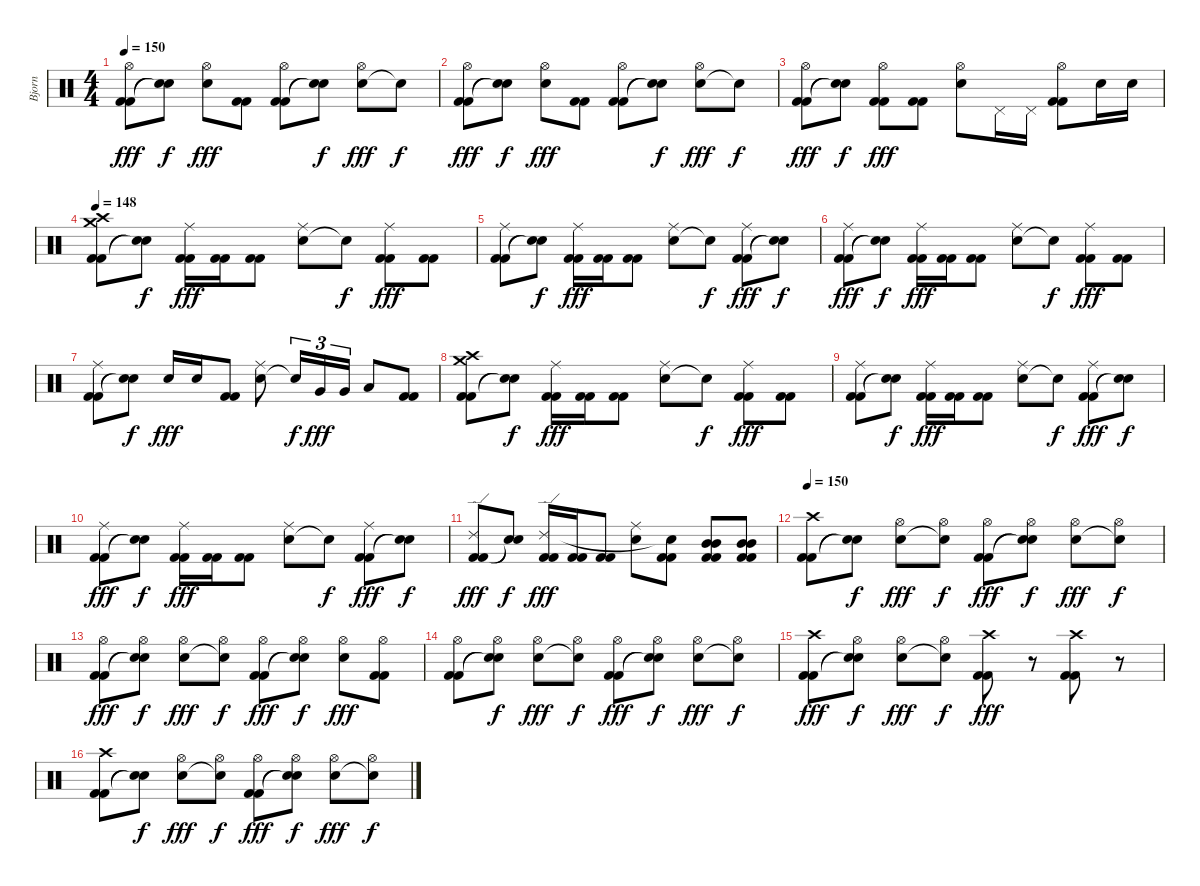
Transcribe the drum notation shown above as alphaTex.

\track ("Bjorn" "Bjorn") {instrument percussion}
\staff {score}
\articulation defaults
\ts (4 4)
\tempo 150
\clef neutral
\ks c
("Kick (hit) 2" "Kick (hit) 2" "Hi-Hat (open)").8{dy fff} ("Snare (hit)"{t} "Snare (hit)"{t}).8{dy f} ("Snare (hit) 2" "Hi-Hat (open)").8{dy fff} ("Kick (hit) 2" "Kick (hit) 2").8 ("Kick (hit) 2" "Kick (hit) 2" "Hi-Hat (open)").8 ("Snare (hit)"{t} "Snare (hit)"{t}).8{dy f} ("Snare (hit) 2" "Hi-Hat (open)").8{dy fff} "Snare (hit)"{t}.8{dy f} |
("Kick (hit) 2" "Kick (hit) 2" "Hi-Hat (open)").8{dy fff} ("Snare (hit)"{t} "Snare (hit)"{t}).8{dy f} ("Snare (hit) 2" "Hi-Hat (open)").8{dy fff} ("Kick (hit) 2" "Kick (hit) 2").8 ("Kick (hit) 2" "Kick (hit) 2" "Hi-Hat (open)").8 ("Snare (hit)"{t} "Snare (hit)"{t}).8{dy f} ("Snare (hit) 2" "Hi-Hat (open)").8{dy fff} "Snare (hit)"{t}.8{dy f} |
("Kick (hit) 2" "Kick (hit) 2" "Hi-Hat (open)").8{dy fff} ("Snare (hit)"{t} "Snare (hit)"{t}).8{dy f} ("Kick (hit) 2" "Kick (hit) 2" "Hi-Hat (open)").8{dy fff} ("Kick (hit) 2" "Kick (hit) 2").8 ("Snare (hit) 2" "Hi-Hat (open)").8 "Pedal Hi-Hat (hit)".16 "Pedal Hi-Hat (hit)".16 ("Kick (hit) 2" "Kick (hit) 2" "Hi-Hat (open)").8 "Snare (hit) 2".16 "Snare (hit) 2".16 |
\tempo 148
("Kick (hit) 2" "Kick (hit) 2" "Crash high (hit)" "Crash medium (hit)").8 ("Snare (hit)"{t} "Snare (hit)"{t}).8{dy f} ("Kick (hit) 2" "Kick (hit) 2" "Ride (middle)").16{dy fff} ("Kick (hit) 2" "Kick (hit) 2").16 ("Kick (hit) 2" "Kick (hit) 2").8 ("Snare (hit) 2" "Ride (middle)").8 "Snare (hit)"{t}.8{dy f} ("Kick (hit) 2" "Kick (hit) 2" "Ride (middle)").8{dy fff} ("Kick (hit) 2" "Kick (hit) 2").8 |
("Kick (hit) 2" "Kick (hit) 2" "Ride (middle)").8 ("Snare (hit)"{t} "Snare (hit)"{t}).8{dy f} ("Kick (hit) 2" "Kick (hit) 2" "Ride (middle)").16{dy fff} ("Kick (hit) 2" "Kick (hit) 2").16 ("Kick (hit) 2" "Kick (hit) 2").8 ("Snare (hit) 2" "Ride (middle)").8 "Snare (hit)"{t}.8{dy f} ("Kick (hit) 2" "Kick (hit) 2" "Ride (middle)").8{dy fff} ("Snare (hit)"{t} "Snare (hit)"{t}).8{dy f} |
("Kick (hit) 2" "Kick (hit) 2" "Ride (middle)").8{dy fff} ("Snare (hit)"{t} "Snare (hit)"{t}).8{dy f} ("Kick (hit) 2" "Kick (hit) 2" "Ride (middle)").16{dy fff} ("Kick (hit) 2" "Kick (hit) 2").16 ("Kick (hit) 2" "Kick (hit) 2").8 ("Snare (hit) 2" "Ride (middle)").8 "Snare (hit)"{t}.8{dy f} ("Kick (hit) 2" "Kick (hit) 2" "Ride (middle)").8{dy fff} ("Kick (hit) 2" "Kick (hit) 2").8 |
("Kick (hit) 2" "Kick (hit) 2" "Ride (middle)").8 ("Snare (hit)"{t} "Snare (hit)"{t}).8{dy f} "Snare (hit) 2".16{dy fff} "Snare (hit) 2".16 ("Kick (hit) 2" "Kick (hit) 2").8 ("Snare (hit) 2" "Ride (middle)").8 "Snare (hit)"{t}.16{tu (3 2) dy f} "Very Low Tom (hit)".16{tu (3 2) dy fff} "Very Low Tom (hit)".16{tu (3 2)} "Low Floor Tom (hit)".8 ("Kick (hit) 2" "Kick (hit) 2").8 |
("Kick (hit) 2" "Kick (hit) 2" "Crash high (hit)" "Crash medium (hit)").8 ("Snare (hit)"{t} "Snare (hit)"{t}).8{dy f} ("Kick (hit) 2" "Kick (hit) 2" "Ride (middle)").16{dy fff} ("Kick (hit) 2" "Kick (hit) 2").16 ("Kick (hit) 2" "Kick (hit) 2").8 ("Snare (hit) 2" "Ride (middle)").8 "Snare (hit)"{t}.8{dy f} ("Kick (hit) 2" "Kick (hit) 2" "Ride (middle)").8{dy fff} ("Kick (hit) 2" "Kick (hit) 2").8 |
("Kick (hit) 2" "Kick (hit) 2" "Ride (middle)").8 ("Snare (hit)"{t} "Snare (hit)"{t}).8{dy f} ("Kick (hit) 2" "Kick (hit) 2" "Ride (middle)").16{dy fff} ("Kick (hit) 2" "Kick (hit) 2").16 ("Kick (hit) 2" "Kick (hit) 2").8 ("Snare (hit) 2" "Ride (middle)").8 "Snare (hit)"{t}.8{dy f} ("Kick (hit) 2" "Kick (hit) 2" "Ride (middle)").8{dy fff} ("Snare (hit)"{t} "Snare (hit)"{t}).8{dy f} |
("Kick (hit) 2" "Kick (hit) 2" "Ride (middle)").8{dy fff} ("Snare (hit)"{t} "Snare (hit)"{t}).8{dy f} ("Kick (hit) 2" "Kick (hit) 2" "Ride (middle)").16{dy fff} ("Kick (hit) 2" "Kick (hit) 2").16 ("Kick (hit) 2" "Kick (hit) 2").8 ("Snare (hit) 2" "Ride (middle)").8 "Snare (hit)"{t}.8{dy f} ("Kick (hit) 2" "Kick (hit) 2" "Ride (middle)").8{dy fff} ("Snare (hit)"{t} "Snare (hit)"{t}).8{dy f} |
("Kick (hit) 2" "Kick (hit) 2" "Ride (edge) 2").8{dy fff} ("Snare (hit)"{t} "Snare (hit)"{t}).8{dy f} ("Kick (hit) 2" "Kick (hit) 2" "Ride (edge) 2").16{dy fff} ("Kick (hit) 2" "Kick (hit) 2").16 ("Kick (hit) 2" "Kick (hit) 2").8 ("Snare (hit) 2" "Ride (middle)").8 ("Kick (hit) 2" "Kick (hit) 2" "Snare (hit)"{t}).8 ("Kick (hit) 2" "Kick (hit) 2" "Mid Tom (hit)" "Mid Tom (hit)").8 ("Kick (hit) 2" "Kick (hit) 2" "Mid Tom (hit)" "Mid Tom (hit)").8 |
\tempo 150
("Kick (hit) 2" "Kick (hit) 2" "Crash high (hit)").8 ("Snare (hit)"{t} "Snare (hit)"{t}).8{dy f} ("Snare (hit) 2" "Hi-Hat (open)").8{dy fff} ("Snare (hit)"{t} "Hi-Hat (open)").8{dy f} ("Kick (hit) 2" "Kick (hit) 2" "Hi-Hat (open)").8{dy fff} ("Snare (hit)"{t} "Snare (hit)"{t} "Hi-Hat (open)").8{dy f} ("Snare (hit) 2" "Hi-Hat (open)").8{dy fff} ("Snare (hit)"{t} "Hi-Hat (open)").8{dy f} |
("Kick (hit) 2" "Kick (hit) 2" "Hi-Hat (open)").8{dy fff} ("Snare (hit)"{t} "Snare (hit)"{t} "Hi-Hat (open)").8{dy f} ("Snare (hit) 2" "Hi-Hat (open)").8{dy fff} ("Snare (hit)"{t} "Hi-Hat (open)").8{dy f} ("Kick (hit) 2" "Kick (hit) 2" "Hi-Hat (open)").8{dy fff} ("Snare (hit)"{t} "Snare (hit)"{t} "Hi-Hat (open)").8{dy f} ("Snare (hit) 2" "Hi-Hat (open)").8{dy fff} ("Kick (hit) 2" "Kick (hit) 2" "Hi-Hat (open)").8 |
("Kick (hit) 2" "Kick (hit) 2" "Hi-Hat (open)").8 ("Snare (hit)"{t} "Snare (hit)"{t} "Hi-Hat (open)").8{dy f} ("Snare (hit) 2" "Hi-Hat (open)").8{dy fff} ("Snare (hit)"{t} "Hi-Hat (open)").8{dy f} ("Kick (hit) 2" "Kick (hit) 2" "Hi-Hat (open)").8{dy fff} ("Snare (hit)"{t} "Snare (hit)"{t} "Hi-Hat (open)").8{dy f} ("Snare (hit) 2" "Hi-Hat (open)").8{dy fff} ("Snare (hit)"{t} "Hi-Hat (open)").8{dy f} |
("Kick (hit) 2" "Kick (hit) 2" "Crash high (hit)").8{dy fff} ("Snare (hit)"{t} "Snare (hit)"{t} "Hi-Hat (open)").8{dy f} ("Snare (hit) 2" "Hi-Hat (open)").8{dy fff} ("Snare (hit)"{t} "Hi-Hat (open)").8{dy f} ("Kick (hit) 2" "Kick (hit) 2" "Crash high (hit)").8{dy fff} r.8 ("Kick (hit) 2" "Kick (hit) 2" "Crash high (hit)").8 r.8 |
("Kick (hit) 2" "Kick (hit) 2" "Crash high (hit)").8 ("Snare (hit)"{t} "Snare (hit)"{t}).8{dy f} ("Snare (hit) 2" "Hi-Hat (open)").8{dy fff} ("Snare (hit)"{t} "Hi-Hat (open)").8{dy f} ("Kick (hit) 2" "Kick (hit) 2" "Hi-Hat (open)").8{dy fff} ("Snare (hit)"{t} "Snare (hit)"{t} "Hi-Hat (open)").8{dy f} ("Snare (hit) 2" "Hi-Hat (open)").8{dy fff} ("Snare (hit)"{t} "Hi-Hat (open)").8{dy f}
